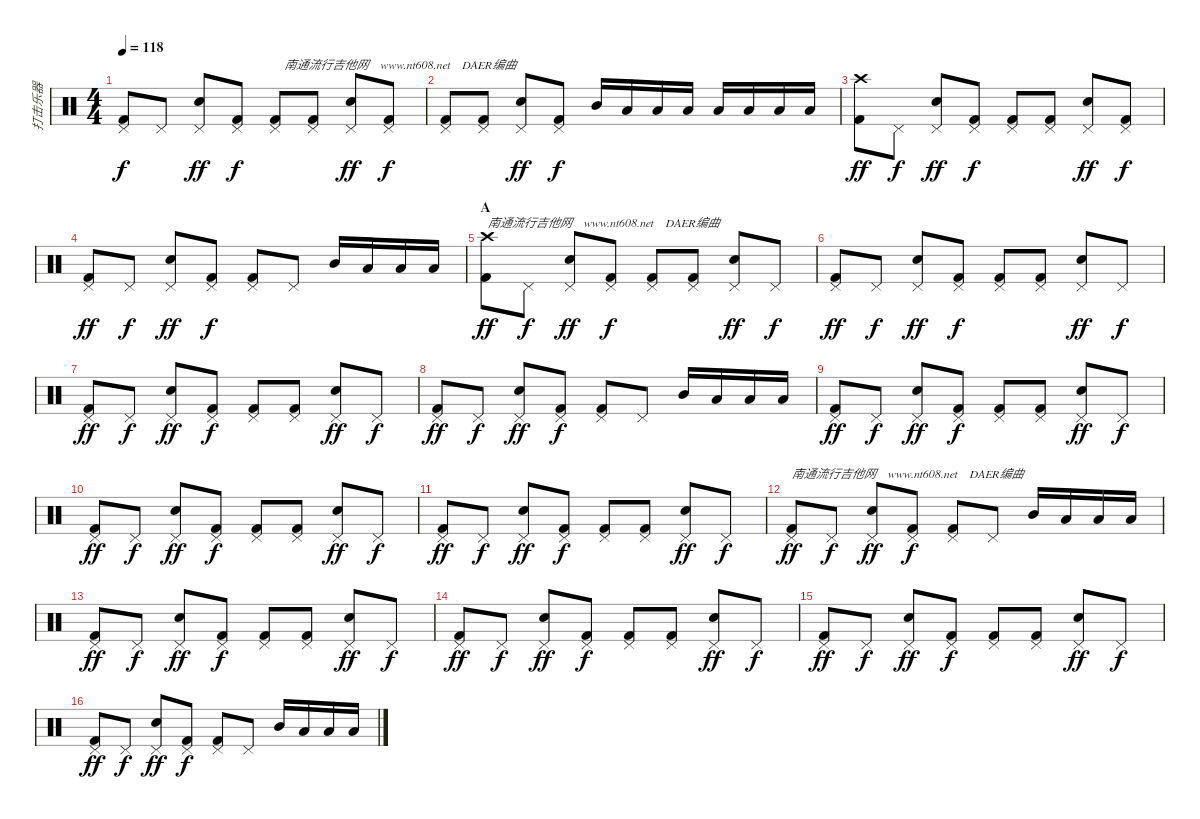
\track ("打击乐器" "打击乐器") {instrument percussion}
\staff {score}
\articulation defaults
\ts (4 4)
\tempo 118
\clef neutral
\ks c
("Pedal Hi-Hat (hit)" "Kick (hit) 2").8{dy f} "Pedal Hi-Hat (hit)".8 ("Pedal Hi-Hat (hit)" "Snare (hit) 2").8{dy ff} ("Pedal Hi-Hat (hit)" "Kick (hit) 2").8{dy f} ("Pedal Hi-Hat (hit)" "Kick (hit) 2").8{txt "   南通流行吉他网    www.nt608.net    DAER编曲"} ("Pedal Hi-Hat (hit)" "Kick (hit) 2").8 ("Pedal Hi-Hat (hit)" "Snare (hit) 2").8{dy ff} ("Pedal Hi-Hat (hit)" "Kick (hit) 2").8{dy f} |
("Pedal Hi-Hat (hit)" "Kick (hit) 2").8 ("Pedal Hi-Hat (hit)" "Kick (hit) 2").8 ("Pedal Hi-Hat (hit)" "Snare (hit) 2").8{dy ff} ("Pedal Hi-Hat (hit)" "Kick (hit) 2").8{dy f} "Mid Tom (hit)".16 "Low Tom (hit)".16 "Low Tom (hit)".16 "Low Tom (hit)".16 "Low Floor Tom (hit)".16 "Low Floor Tom (hit)".16 "Low Floor Tom (hit)".16 "Low Floor Tom (hit)".16 |
("Crash high (hit)" "Kick (hit) 2").8{dy ff} "Pedal Hi-Hat (hit)".8{dy f} ("Pedal Hi-Hat (hit)" "Snare (hit) 2").8{dy ff} ("Pedal Hi-Hat (hit)" "Kick (hit) 2").8{dy f} ("Pedal Hi-Hat (hit)" "Kick (hit) 2").8 ("Pedal Hi-Hat (hit)" "Kick (hit) 2").8 ("Pedal Hi-Hat (hit)" "Snare (hit) 2").8{dy ff} ("Pedal Hi-Hat (hit)" "Kick (hit) 2").8{dy f} |
("Pedal Hi-Hat (hit)" "Kick (hit) 2").8{dy ff} "Pedal Hi-Hat (hit)".8{dy f} ("Pedal Hi-Hat (hit)" "Snare (hit) 2").8{dy ff} ("Pedal Hi-Hat (hit)" "Kick (hit) 2").8{dy f} ("Pedal Hi-Hat (hit)" "Kick (hit) 2").8 "Pedal Hi-Hat (hit)".8 "Mid Tom (hit)".16 "Low Tom (hit)".16 "Low Floor Tom (hit)".16 "Low Floor Tom (hit)".16 |
\section ("" "A")
("Crash high (hit)" "Kick (hit) 2").8{txt "南通流行吉他网    www.nt608.net    DAER编曲" dy ff} "Pedal Hi-Hat (hit)".8{dy f} ("Pedal Hi-Hat (hit)" "Snare (hit) 2").8{dy ff} ("Pedal Hi-Hat (hit)" "Kick (hit) 2").8{dy f} ("Pedal Hi-Hat (hit)" "Kick (hit) 2").8 ("Pedal Hi-Hat (hit)" "Kick (hit) 2").8 ("Pedal Hi-Hat (hit)" "Snare (hit) 2").8{dy ff} "Pedal Hi-Hat (hit)".8{dy f} |
("Pedal Hi-Hat (hit)" "Kick (hit) 2").8{dy ff} "Pedal Hi-Hat (hit)".8{dy f} ("Pedal Hi-Hat (hit)" "Snare (hit) 2").8{dy ff} ("Pedal Hi-Hat (hit)" "Kick (hit) 2").8{dy f} ("Pedal Hi-Hat (hit)" "Kick (hit) 2").8 ("Pedal Hi-Hat (hit)" "Kick (hit) 2").8 ("Pedal Hi-Hat (hit)" "Snare (hit) 2").8{dy ff} "Pedal Hi-Hat (hit)".8{dy f} |
("Pedal Hi-Hat (hit)" "Kick (hit) 2").8{dy ff} "Pedal Hi-Hat (hit)".8{dy f} ("Pedal Hi-Hat (hit)" "Snare (hit) 2").8{dy ff} ("Pedal Hi-Hat (hit)" "Kick (hit) 2").8{dy f} ("Pedal Hi-Hat (hit)" "Kick (hit) 2").8 ("Pedal Hi-Hat (hit)" "Kick (hit) 2").8 ("Pedal Hi-Hat (hit)" "Snare (hit) 2").8{dy ff} "Pedal Hi-Hat (hit)".8{dy f} |
("Pedal Hi-Hat (hit)" "Kick (hit) 2").8{dy ff} "Pedal Hi-Hat (hit)".8{dy f} ("Pedal Hi-Hat (hit)" "Snare (hit) 2").8{dy ff} ("Pedal Hi-Hat (hit)" "Kick (hit) 2").8{dy f} ("Pedal Hi-Hat (hit)" "Kick (hit) 2").8 "Pedal Hi-Hat (hit)".8 "Mid Tom (hit)".16 "Low Tom (hit)".16 "Low Floor Tom (hit)".16 "Low Floor Tom (hit)".16 |
("Pedal Hi-Hat (hit)" "Kick (hit) 2").8{dy ff} "Pedal Hi-Hat (hit)".8{dy f} ("Pedal Hi-Hat (hit)" "Snare (hit) 2").8{dy ff} ("Pedal Hi-Hat (hit)" "Kick (hit) 2").8{dy f} ("Pedal Hi-Hat (hit)" "Kick (hit) 2").8 ("Pedal Hi-Hat (hit)" "Kick (hit) 2").8 ("Pedal Hi-Hat (hit)" "Snare (hit) 2").8{dy ff} "Pedal Hi-Hat (hit)".8{dy f} |
("Pedal Hi-Hat (hit)" "Kick (hit) 2").8{dy ff} "Pedal Hi-Hat (hit)".8{dy f} ("Pedal Hi-Hat (hit)" "Snare (hit) 2").8{dy ff} ("Pedal Hi-Hat (hit)" "Kick (hit) 2").8{dy f} ("Pedal Hi-Hat (hit)" "Kick (hit) 2").8 ("Pedal Hi-Hat (hit)" "Kick (hit) 2").8 ("Pedal Hi-Hat (hit)" "Snare (hit) 2").8{dy ff} "Pedal Hi-Hat (hit)".8{dy f} |
("Pedal Hi-Hat (hit)" "Kick (hit) 2").8{dy ff} "Pedal Hi-Hat (hit)".8{dy f} ("Pedal Hi-Hat (hit)" "Snare (hit) 2").8{dy ff} ("Pedal Hi-Hat (hit)" "Kick (hit) 2").8{dy f} ("Pedal Hi-Hat (hit)" "Kick (hit) 2").8 ("Pedal Hi-Hat (hit)" "Kick (hit) 2").8 ("Pedal Hi-Hat (hit)" "Snare (hit) 2").8{dy ff} "Pedal Hi-Hat (hit)".8{dy f} |
("Pedal Hi-Hat (hit)" "Kick (hit) 2").8{txt "南通流行吉他网    www.nt608.net    DAER编曲" dy ff} "Pedal Hi-Hat (hit)".8{dy f} ("Pedal Hi-Hat (hit)" "Snare (hit) 2").8{dy ff} ("Pedal Hi-Hat (hit)" "Kick (hit) 2").8{dy f} ("Pedal Hi-Hat (hit)" "Kick (hit) 2").8 "Pedal Hi-Hat (hit)".8 "Mid Tom (hit)".16 "Low Tom (hit)".16 "Low Floor Tom (hit)".16 "Low Floor Tom (hit)".16 |
\section ("" "")
("Pedal Hi-Hat (hit)" "Kick (hit) 2").8{dy ff} "Pedal Hi-Hat (hit)".8{dy f} ("Pedal Hi-Hat (hit)" "Snare (hit) 2").8{dy ff} ("Pedal Hi-Hat (hit)" "Kick (hit) 2").8{dy f} ("Pedal Hi-Hat (hit)" "Kick (hit) 2").8 ("Pedal Hi-Hat (hit)" "Kick (hit) 2").8 ("Pedal Hi-Hat (hit)" "Snare (hit) 2").8{dy ff} "Pedal Hi-Hat (hit)".8{dy f} |
("Pedal Hi-Hat (hit)" "Kick (hit) 2").8{dy ff} "Pedal Hi-Hat (hit)".8{dy f} ("Pedal Hi-Hat (hit)" "Snare (hit) 2").8{dy ff} ("Pedal Hi-Hat (hit)" "Kick (hit) 2").8{dy f} ("Pedal Hi-Hat (hit)" "Kick (hit) 2").8 ("Pedal Hi-Hat (hit)" "Kick (hit) 2").8 ("Pedal Hi-Hat (hit)" "Snare (hit) 2").8{dy ff} "Pedal Hi-Hat (hit)".8{dy f} |
("Pedal Hi-Hat (hit)" "Kick (hit) 2").8{dy ff} "Pedal Hi-Hat (hit)".8{dy f} ("Pedal Hi-Hat (hit)" "Snare (hit) 2").8{dy ff} ("Pedal Hi-Hat (hit)" "Kick (hit) 2").8{dy f} ("Pedal Hi-Hat (hit)" "Kick (hit) 2").8 ("Pedal Hi-Hat (hit)" "Kick (hit) 2").8 ("Pedal Hi-Hat (hit)" "Snare (hit) 2").8{dy ff} "Pedal Hi-Hat (hit)".8{dy f} |
("Pedal Hi-Hat (hit)" "Kick (hit) 2").8{dy ff} "Pedal Hi-Hat (hit)".8{dy f} ("Pedal Hi-Hat (hit)" "Snare (hit) 2").8{dy ff} ("Pedal Hi-Hat (hit)" "Kick (hit) 2").8{dy f} ("Pedal Hi-Hat (hit)" "Kick (hit) 2").8 "Pedal Hi-Hat (hit)".8 "Mid Tom (hit)".16 "Low Tom (hit)".16 "Low Floor Tom (hit)".16 "Low Floor Tom (hit)".16
